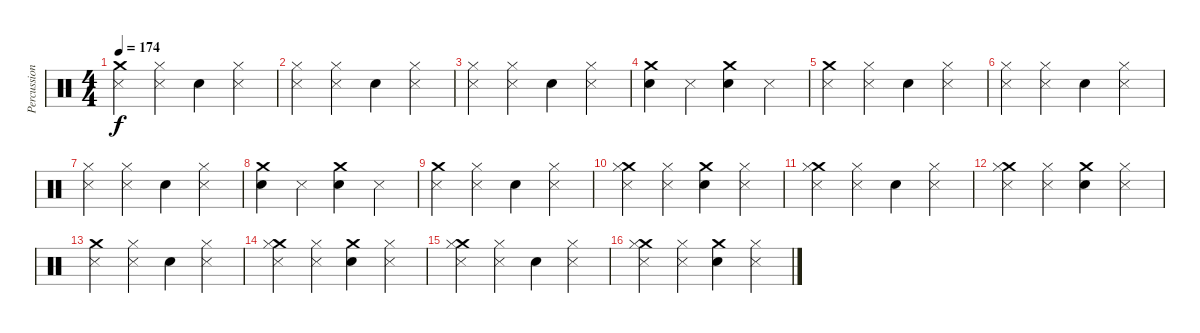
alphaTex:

\track ("Percussion" "Percussion") {instrument percussion}
\staff {score}
\articulation defaults
\ts (4 4)
\tempo 174
\clef neutral
\ks c
("Crash medium (hit)" "Metronome (hit)").4{dy f} ("Hi-Hat (closed)" "Metronome (hit)").4 "Electric Snare (hit)".4 ("Hi-Hat (closed)" "Metronome (hit)").4 |
("Hi-Hat (closed)" "Metronome (hit)").4 ("Hi-Hat (closed)" "Metronome (hit)").4 "Electric Snare (hit)".4 ("Hi-Hat (closed)" "Metronome (hit)").4 |
("Hi-Hat (closed)" "Metronome (hit)").4 ("Hi-Hat (closed)" "Metronome (hit)").4 "Electric Snare (hit)".4 ("Hi-Hat (closed)" "Metronome (hit)").4 |
("Crash medium (hit)" "Electric Snare (hit)").4 "Metronome (hit)".4 ("Crash medium (hit)" "Electric Snare (hit)").4 "Metronome (hit)".4 |
("Crash medium (hit)" "Metronome (hit)").4 ("Hi-Hat (closed)" "Metronome (hit)").4 "Electric Snare (hit)".4 ("Hi-Hat (closed)" "Metronome (hit)").4 |
("Hi-Hat (closed)" "Metronome (hit)").4 ("Hi-Hat (closed)" "Metronome (hit)").4 "Electric Snare (hit)".4 ("Hi-Hat (closed)" "Metronome (hit)").4 |
("Hi-Hat (closed)" "Metronome (hit)").4 ("Hi-Hat (closed)" "Metronome (hit)").4 "Electric Snare (hit)".4 ("Hi-Hat (closed)" "Metronome (hit)").4 |
("Crash medium (hit)" "Electric Snare (hit)").4 "Metronome (hit)".4 ("Crash medium (hit)" "Electric Snare (hit)").4 "Metronome (hit)".4 |
("Crash medium (hit)" "Metronome (hit)").4 ("Hi-Hat (closed)" "Metronome (hit)").4 "Electric Snare (hit)".4 ("Hi-Hat (closed)" "Metronome (hit)").4 |
("Crash medium (hit)" "Hi-Hat (closed)" "Metronome (hit)").4 ("Hi-Hat (closed)" "Metronome (hit)").4 ("Crash medium (hit)" "Electric Snare (hit)").4 ("Hi-Hat (closed)" "Metronome (hit)").4 |
("Crash medium (hit)" "Hi-Hat (closed)" "Metronome (hit)").4 ("Hi-Hat (closed)" "Metronome (hit)").4 "Electric Snare (hit)".4 ("Hi-Hat (closed)" "Metronome (hit)").4 |
("Crash medium (hit)" "Hi-Hat (closed)" "Metronome (hit)").4 ("Hi-Hat (closed)" "Metronome (hit)").4 ("Crash medium (hit)" "Electric Snare (hit)").4 ("Hi-Hat (closed)" "Metronome (hit)").4 |
("Crash medium (hit)" "Metronome (hit)").4 ("Hi-Hat (closed)" "Metronome (hit)").4 "Electric Snare (hit)".4 ("Hi-Hat (closed)" "Metronome (hit)").4 |
("Crash medium (hit)" "Hi-Hat (closed)" "Metronome (hit)").4 ("Hi-Hat (closed)" "Metronome (hit)").4 ("Crash medium (hit)" "Electric Snare (hit)").4 ("Hi-Hat (closed)" "Metronome (hit)").4 |
("Crash medium (hit)" "Hi-Hat (closed)" "Metronome (hit)").4 ("Hi-Hat (closed)" "Metronome (hit)").4 "Electric Snare (hit)".4 ("Hi-Hat (closed)" "Metronome (hit)").4 |
("Crash medium (hit)" "Hi-Hat (closed)" "Metronome (hit)").4 ("Hi-Hat (closed)" "Metronome (hit)").4 ("Crash medium (hit)" "Electric Snare (hit)").4 ("Hi-Hat (closed)" "Metronome (hit)").4
